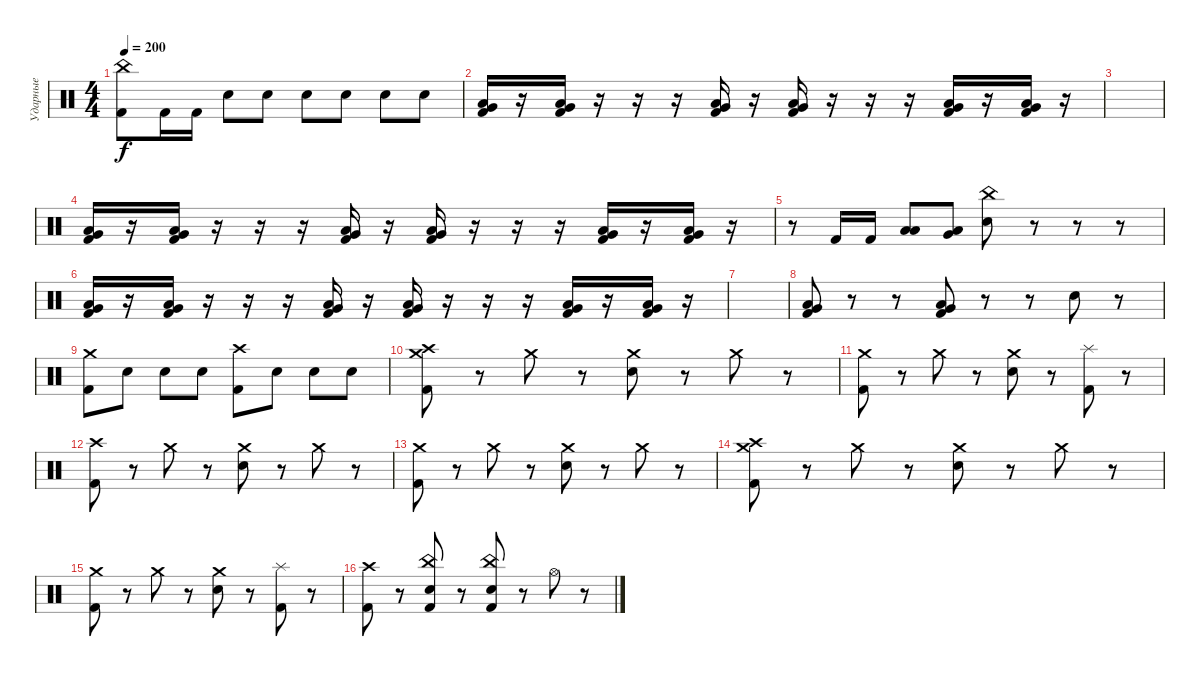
\track ("Ударные" "Ударные") {instrument percussion}
\staff {score}
\articulation defaults
\ts (4 4)
\tempo 200
\clef neutral
\ks c
("Kick (hit) 2" "China (hit)").8{dy f} "Kick (hit) 2".16 "Kick (hit) 2".16 "Electric Snare (hit)".8 "Electric Snare (hit)".8 "Electric Snare (hit)".8 "Electric Snare (hit)".8 "Electric Snare (hit)".8 "Electric Snare (hit)".8 |
("Kick (hit) 2" "Low Floor Tom (hit)" "Very Low Tom (hit)").16 r.16 ("Kick (hit) 2" "Low Floor Tom (hit)" "Very Low Tom (hit)").16 r.16 r.16 r.16 ("Kick (hit) 2" "Low Floor Tom (hit)" "Very Low Tom (hit)").16 r.16 ("Kick (hit) 2" "Low Floor Tom (hit)" "Very Low Tom (hit)").16 r.16 r.16 r.16 ("Kick (hit) 2" "Low Floor Tom (hit)" "Very Low Tom (hit)").16 r.16 ("Kick (hit) 2" "Low Floor Tom (hit)" "Very Low Tom (hit)").16 r.16 |
|
("Kick (hit) 2" "Low Floor Tom (hit)" "Very Low Tom (hit)").16 r.16 ("Kick (hit) 2" "Low Floor Tom (hit)" "Very Low Tom (hit)").16 r.16 r.16 r.16 ("Kick (hit) 2" "Low Floor Tom (hit)" "Very Low Tom (hit)").16 r.16 ("Kick (hit) 2" "Low Floor Tom (hit)" "Very Low Tom (hit)").16 r.16 r.16 r.16 ("Kick (hit) 2" "Low Floor Tom (hit)" "Very Low Tom (hit)").16 r.16 ("Kick (hit) 2" "Low Floor Tom (hit)" "Very Low Tom (hit)").16 r.16 |
r.8 "Kick (hit) 2".16 "Kick (hit) 2".16 ("Low Floor Tom (hit)" "Low Tom (hit)").8 ("Low Floor Tom (hit)" "Very Low Tom (hit)").8 ("Electric Snare (hit)" "China (hit)").8 r.8 r.8 r.8 |
("Kick (hit) 2" "Low Floor Tom (hit)" "Very Low Tom (hit)").16 r.16 ("Kick (hit) 2" "Low Floor Tom (hit)" "Very Low Tom (hit)").16 r.16 r.16 r.16 ("Kick (hit) 2" "Low Floor Tom (hit)" "Very Low Tom (hit)").16 r.16 ("Kick (hit) 2" "Low Floor Tom (hit)" "Very Low Tom (hit)").16 r.16 r.16 r.16 ("Kick (hit) 2" "Low Floor Tom (hit)" "Very Low Tom (hit)").16 r.16 ("Kick (hit) 2" "Low Floor Tom (hit)" "Very Low Tom (hit)").16 r.16 |
|
("Kick (hit) 2" "Low Floor Tom (hit)" "Very Low Tom (hit)").8 r.8 r.8 ("Kick (hit) 2" "Low Floor Tom (hit)" "Very Low Tom (hit)").8 r.8 r.8 "Electric Snare (hit)".8 r.8 |
("Kick (hit) 2" "Crash medium (hit)").8 "Electric Snare (hit)".8 "Electric Snare (hit)".8 "Electric Snare (hit)".8 ("Kick (hit) 2" "Crash high (hit)").8 "Electric Snare (hit)".8 "Electric Snare (hit)".8 "Electric Snare (hit)".8 |
("Kick (hit) 2" "Crash high (hit)" "Crash medium (hit)").8 r.8 "Crash medium (hit)".8 r.8 ("Electric Snare (hit)" "Crash medium (hit)").8 r.8 "Crash medium (hit)".8 r.8 |
("Kick (hit) 2" "Crash medium (hit)").8 r.8 "Crash medium (hit)".8 r.8 ("Electric Snare (hit)" "Crash medium (hit)").8 r.8 ("Kick (hit) 2" "Splash (hit)").8 r.8 |
("Kick (hit) 2" "Crash high (hit)").8 r.8 "Crash medium (hit)".8 r.8 ("Electric Snare (hit)" "Crash medium (hit)").8 r.8 "Crash medium (hit)".8 r.8 |
("Kick (hit) 2" "Crash medium (hit)").8 r.8 "Crash medium (hit)".8 r.8 ("Electric Snare (hit)" "Crash medium (hit)").8 r.8 "Crash medium (hit)".8 r.8 |
("Kick (hit) 2" "Crash high (hit)" "Crash medium (hit)").8 r.8 "Crash medium (hit)".8 r.8 ("Electric Snare (hit)" "Crash medium (hit)").8 r.8 "Crash medium (hit)".8 r.8 |
("Kick (hit) 2" "Crash medium (hit)").8 r.8 "Crash medium (hit)".8 r.8 ("Electric Snare (hit)" "Crash medium (hit)").8 r.8 ("Kick (hit) 2" "Splash (hit)").8 r.8 |
("Kick (hit) 2" "Crash high (hit)").8 r.8 ("Kick (hit) 2" "Electric Snare (hit)" "China (hit)").8 r.8 ("Kick (hit) 2" "Electric Snare (hit)" "China (hit)").8 r.8 "Hi-Hat (open)".8 r.8
